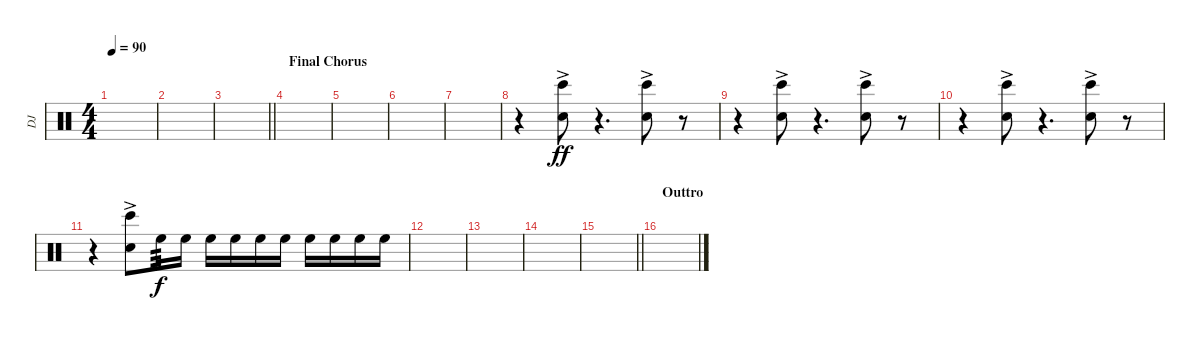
\track ("DJ" "DJ") {instrument percussion}
\staff {score}
\articulation defaults
\ts (4 4)
\tempo 90
\clef neutral
\ks c
|
|
\barLineRight lightlight
|
\section ("" "Final Chorus")
|
|
|
|
r.4 ("Bongo High (hit)"{ac} "Hand Clap (hit)"{ac}).8{dy ff} r.4{d} ("Bongo High (hit)"{ac} "Hand Clap (hit)"{ac}).8 r.8 |
r.4 ("Bongo High (hit)"{ac} "Hand Clap (hit)"{ac}).8 r.4{d} ("Bongo High (hit)"{ac} "Hand Clap (hit)"{ac}).8 r.8 |
r.4 ("Bongo High (hit)"{ac} "Hand Clap (hit)"{ac}).8 r.4{d} ("Bongo High (hit)"{ac} "Hand Clap (hit)"{ac}).8 r.8 |
r.4 ("Bongo High (hit)"{ac} "Hand Clap (hit)"{ac}).8 "High Floor Tom (hit)".16{tp 3 dy f} "High Floor Tom (hit)".16 "High Floor Tom (hit)".16 "High Floor Tom (hit)".16 "High Floor Tom (hit)".16 "High Floor Tom (hit)".16 "High Floor Tom (hit)".16 "High Floor Tom (hit)".16 "High Floor Tom (hit)".16 "High Floor Tom (hit)".16 |
|
|
|
\barLineRight lightlight
|
\section ("" "Outtro")
